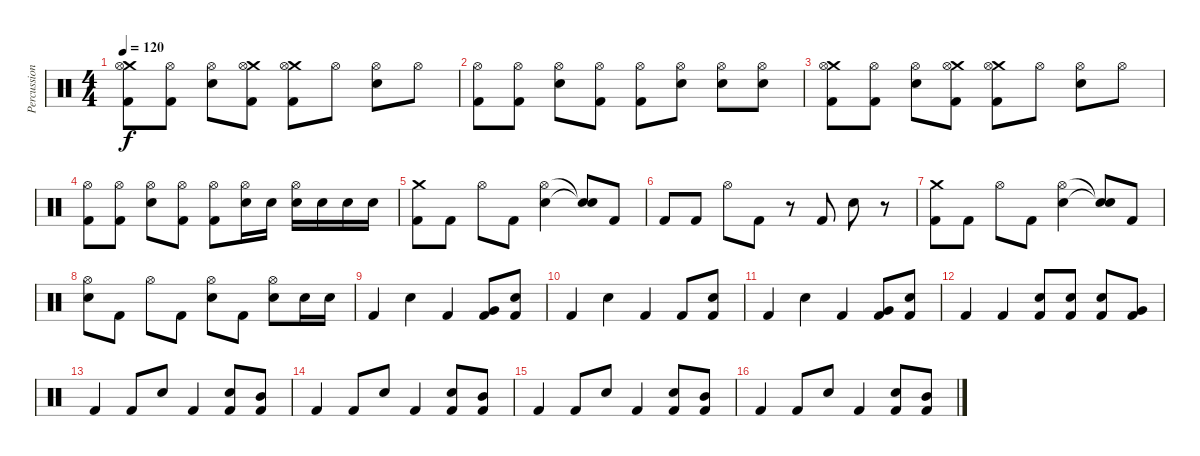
\track ("Percussion" "Percussion") {instrument percussion}
\staff {score}
\articulation defaults
\ts (4 4)
\tempo 120
\clef neutral
\ks c
("Crash medium (hit)" "Hi-Hat (open)" "Kick (hit) 2").8{dy f} ("Hi-Hat (open)" "Kick (hit) 2").8 ("Hi-Hat (open)" "Electric Snare (hit)").8 ("Crash medium (hit)" "Hi-Hat (open)" "Kick (hit) 2").8 ("Crash medium (hit)" "Hi-Hat (open)" "Kick (hit) 2").8 "Hi-Hat (open)".8 ("Hi-Hat (open)" "Electric Snare (hit)").8 "Hi-Hat (open)".8 |
("Hi-Hat (open)" "Kick (hit) 2").8 ("Hi-Hat (open)" "Kick (hit) 2").8 ("Hi-Hat (open)" "Electric Snare (hit)").8 ("Hi-Hat (open)" "Kick (hit) 2").8 ("Hi-Hat (open)" "Kick (hit) 2").8 ("Hi-Hat (open)" "Electric Snare (hit)").8 ("Hi-Hat (open)" "Electric Snare (hit)").8 ("Hi-Hat (open)" "Electric Snare (hit)").8 |
("Crash medium (hit)" "Hi-Hat (open)" "Kick (hit) 2").8 ("Hi-Hat (open)" "Kick (hit) 2").8 ("Hi-Hat (open)" "Electric Snare (hit)").8 ("Crash medium (hit)" "Hi-Hat (open)" "Kick (hit) 2").8 ("Crash medium (hit)" "Hi-Hat (open)" "Kick (hit) 2").8 "Hi-Hat (open)".8 ("Hi-Hat (open)" "Electric Snare (hit)").8 "Hi-Hat (open)".8 |
("Hi-Hat (open)" "Kick (hit) 2").8 ("Hi-Hat (open)" "Kick (hit) 2").8 ("Hi-Hat (open)" "Electric Snare (hit)").8 ("Hi-Hat (open)" "Kick (hit) 2").8 ("Hi-Hat (open)" "Kick (hit) 2").8 ("Hi-Hat (open)" "Electric Snare (hit)").16 "Electric Snare (hit)".16 ("Hi-Hat (open)" "Electric Snare (hit)").16 "Electric Snare (hit)".16 "Electric Snare (hit)".16 "Electric Snare (hit)".16 |
("Crash medium (hit)" "Kick (hit) 2").8 "Kick (hit) 2".8 "Hi-Hat (open)".8 "Kick (hit) 2".8 ("Hi-Hat (open)" "Electric Snare (hit)").4 ("Snare (hit)"{t} "Snare (hit)"{t}).8 "Kick (hit) 2".8 |
"Kick (hit) 2".8 "Kick (hit) 2".8 "Hi-Hat (open)".8 "Kick (hit) 2".8 r.8 "Kick (hit) 2".8 "Electric Snare (hit)".8 r.8 |
("Crash medium (hit)" "Kick (hit) 2").8 "Kick (hit) 2".8 "Hi-Hat (open)".8 "Kick (hit) 2".8 ("Hi-Hat (open)" "Electric Snare (hit)").4 ("Snare (hit)"{t} "Snare (hit)"{t}).8 "Kick (hit) 2".8 |
("Hi-Hat (open)" "Electric Snare (hit)").8 "Kick (hit) 2".8 "Hi-Hat (open)".8 "Kick (hit) 2".8 ("Hi-Hat (open)" "Electric Snare (hit)").8 "Kick (hit) 2".8 ("Hi-Hat (open)" "Electric Snare (hit)").8 "Electric Snare (hit)".16 "Electric Snare (hit)".16 |
"Kick (hit) 2".4 "Electric Snare (hit)".4 "Kick (hit) 2".4 ("Very Low Tom (hit)" "Kick (hit) 2").8 ("Electric Snare (hit)" "Kick (hit) 2").8 |
"Kick (hit) 2".4 "Electric Snare (hit)".4 "Kick (hit) 2".4 "Kick (hit) 2".8 ("Electric Snare (hit)" "Kick (hit) 2").8 |
"Kick (hit) 2".4 "Electric Snare (hit)".4 "Kick (hit) 2".4 ("Very Low Tom (hit)" "Kick (hit) 2").8 ("Electric Snare (hit)" "Kick (hit) 2").8 |
"Kick (hit) 2".4 "Kick (hit) 2".4 ("Electric Snare (hit)" "Kick (hit) 2").8 ("Electric Snare (hit)" "Kick (hit) 2").8 ("Electric Snare (hit)" "Kick (hit) 2").8 ("Very Low Tom (hit)" "Kick (hit) 2").8 |
"Kick (hit) 2".4 "Kick (hit) 2".8 "Electric Snare (hit)".8 "Kick (hit) 2".4 ("Electric Snare (hit)" "Kick (hit) 2").8 ("Mid Tom (hit)" "Kick (hit) 2").8 |
"Kick (hit) 2".4 "Kick (hit) 2".8 "Electric Snare (hit)".8 "Kick (hit) 2".4 ("Electric Snare (hit)" "Kick (hit) 2").8 ("Mid Tom (hit)" "Kick (hit) 2").8 |
"Kick (hit) 2".4 "Kick (hit) 2".8 "Electric Snare (hit)".8 "Kick (hit) 2".4 ("Electric Snare (hit)" "Kick (hit) 2").8 ("Mid Tom (hit)" "Kick (hit) 2").8 |
"Kick (hit) 2".4 "Kick (hit) 2".8 "Electric Snare (hit)".8 "Kick (hit) 2".4 ("Electric Snare (hit)" "Kick (hit) 2").8 ("Mid Tom (hit)" "Kick (hit) 2").8
